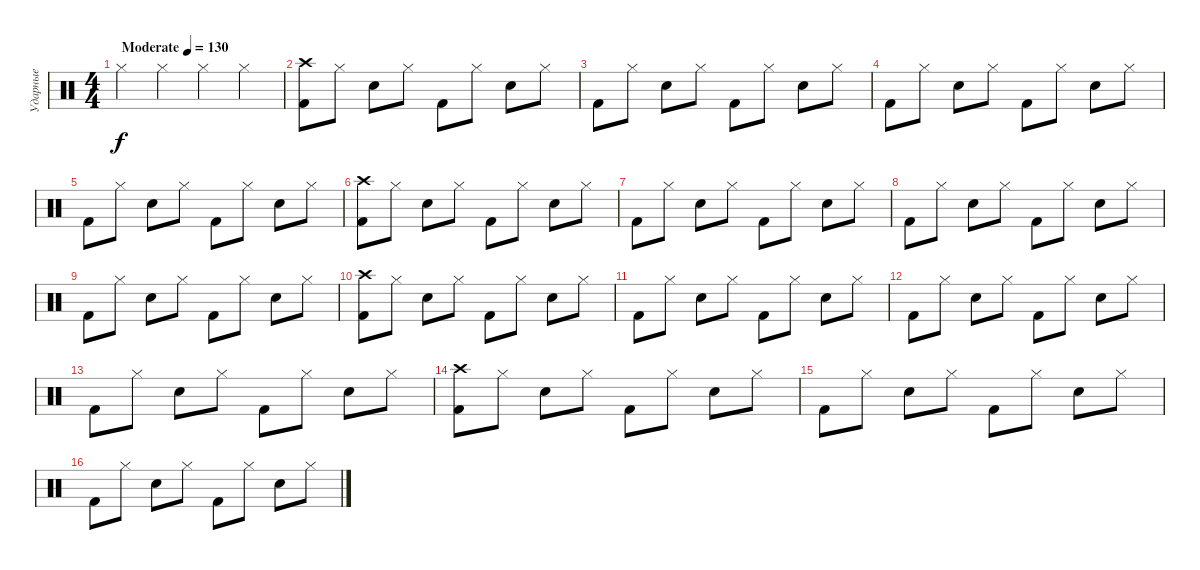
\track ("Ударные" "Ударные") {instrument percussion}
\staff {score}
\articulation defaults
\ts (4 4)
\tempo (130 "Moderate")
\clef neutral
\ks c "Hi-Hat (closed)".4{dy f} "Hi-Hat (closed)".4 "Hi-Hat (closed)".4 "Hi-Hat (closed)".4
|
("Crash high (hit)" "Kick (hit) 2").8 "Hi-Hat (closed)".8 "Electric Snare (hit)".8 "Hi-Hat (closed)".8 "Kick (hit) 2".8 "Hi-Hat (closed)".8 "Electric Snare (hit)".8 "Hi-Hat (closed)".8 |
"Kick (hit) 2".8 "Hi-Hat (closed)".8 "Electric Snare (hit)".8 "Hi-Hat (closed)".8 "Kick (hit) 2".8 "Hi-Hat (closed)".8 "Electric Snare (hit)".8 "Hi-Hat (closed)".8 |
"Kick (hit) 2".8 "Hi-Hat (closed)".8 "Electric Snare (hit)".8 "Hi-Hat (closed)".8 "Kick (hit) 2".8 "Hi-Hat (closed)".8 "Electric Snare (hit)".8 "Hi-Hat (closed)".8 |
"Kick (hit) 2".8 "Hi-Hat (closed)".8 "Electric Snare (hit)".8 "Hi-Hat (closed)".8 "Kick (hit) 2".8 "Hi-Hat (closed)".8 "Electric Snare (hit)".8 "Hi-Hat (closed)".8 |
("Crash high (hit)" "Kick (hit) 2").8 "Hi-Hat (closed)".8 "Electric Snare (hit)".8 "Hi-Hat (closed)".8 "Kick (hit) 2".8 "Hi-Hat (closed)".8 "Electric Snare (hit)".8 "Hi-Hat (closed)".8 |
"Kick (hit) 2".8 "Hi-Hat (closed)".8 "Electric Snare (hit)".8 "Hi-Hat (closed)".8 "Kick (hit) 2".8 "Hi-Hat (closed)".8 "Electric Snare (hit)".8 "Hi-Hat (closed)".8 |
"Kick (hit) 2".8 "Hi-Hat (closed)".8 "Electric Snare (hit)".8 "Hi-Hat (closed)".8 "Kick (hit) 2".8 "Hi-Hat (closed)".8 "Electric Snare (hit)".8 "Hi-Hat (closed)".8 |
"Kick (hit) 2".8 "Hi-Hat (closed)".8 "Electric Snare (hit)".8 "Hi-Hat (closed)".8 "Kick (hit) 2".8 "Hi-Hat (closed)".8 "Electric Snare (hit)".8 "Hi-Hat (closed)".8 |
("Crash high (hit)" "Kick (hit) 2").8 "Hi-Hat (closed)".8 "Electric Snare (hit)".8 "Hi-Hat (closed)".8 "Kick (hit) 2".8 "Hi-Hat (closed)".8 "Electric Snare (hit)".8 "Hi-Hat (closed)".8 |
"Kick (hit) 2".8 "Hi-Hat (closed)".8 "Electric Snare (hit)".8 "Hi-Hat (closed)".8 "Kick (hit) 2".8 "Hi-Hat (closed)".8 "Electric Snare (hit)".8 "Hi-Hat (closed)".8 |
"Kick (hit) 2".8 "Hi-Hat (closed)".8 "Electric Snare (hit)".8 "Hi-Hat (closed)".8 "Kick (hit) 2".8 "Hi-Hat (closed)".8 "Electric Snare (hit)".8 "Hi-Hat (closed)".8 |
"Kick (hit) 2".8 "Hi-Hat (closed)".8 "Electric Snare (hit)".8 "Hi-Hat (closed)".8 "Kick (hit) 2".8 "Hi-Hat (closed)".8 "Electric Snare (hit)".8 "Hi-Hat (closed)".8 |
("Crash high (hit)" "Kick (hit) 2").8 "Hi-Hat (closed)".8 "Electric Snare (hit)".8 "Hi-Hat (closed)".8 "Kick (hit) 2".8 "Hi-Hat (closed)".8 "Electric Snare (hit)".8 "Hi-Hat (closed)".8 |
"Kick (hit) 2".8 "Hi-Hat (closed)".8 "Electric Snare (hit)".8 "Hi-Hat (closed)".8 "Kick (hit) 2".8 "Hi-Hat (closed)".8 "Electric Snare (hit)".8 "Hi-Hat (closed)".8 |
"Kick (hit) 2".8 "Hi-Hat (closed)".8 "Electric Snare (hit)".8 "Hi-Hat (closed)".8 "Kick (hit) 2".8 "Hi-Hat (closed)".8 "Electric Snare (hit)".8 "Hi-Hat (closed)".8
